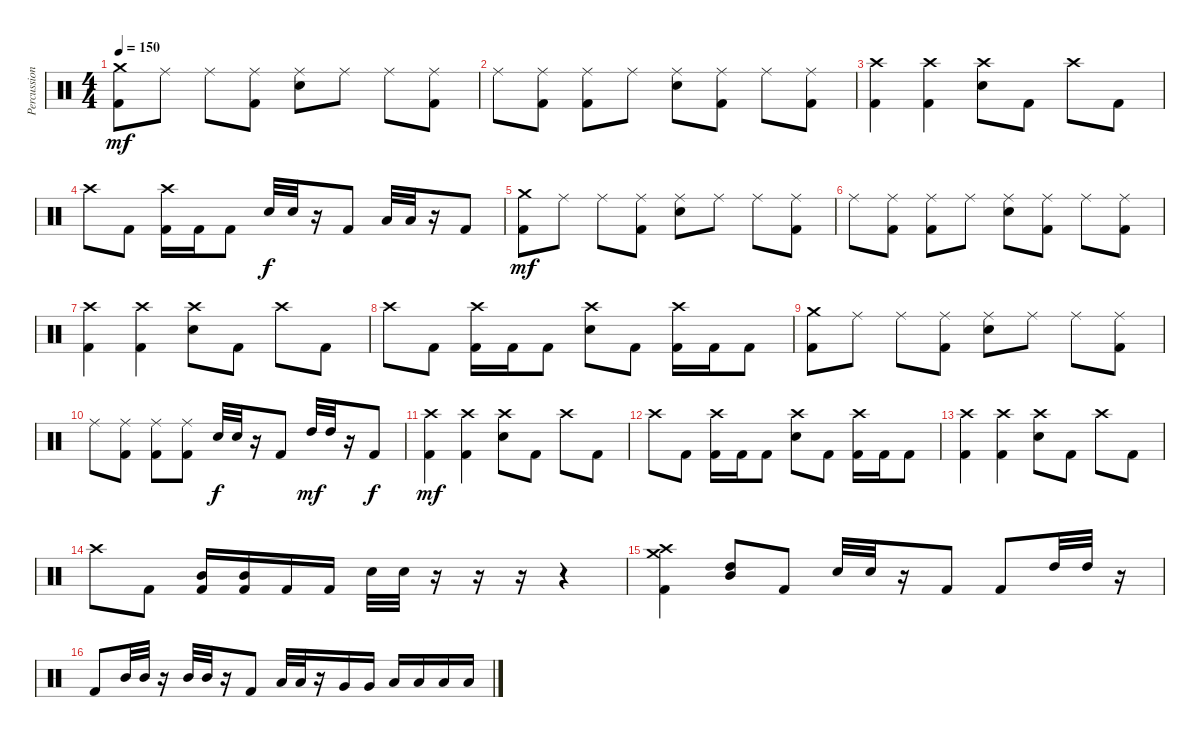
\track ("Percussion" "Percussion") {instrument percussion}
\staff {score}
\articulation defaults
\ts (4 4)
\tempo 150
\clef neutral
\ks c
("Crash medium (hit)" "Kick (hit) 2").8{dy mf} "Ride (middle)".8 "Ride (middle)".8 ("Ride (middle)" "Kick (hit) 2").8 ("Ride (middle)" "Snare (hit) 2").8 "Ride (middle)".8 "Ride (middle)".8 ("Ride (middle)" "Kick (hit) 2").8 |
"Ride (middle)".8 ("Ride (middle)" "Kick (hit) 2").8 ("Ride (middle)" "Kick (hit) 2").8 "Ride (middle)".8 ("Ride (middle)" "Snare (hit) 2").8 ("Ride (middle)" "Kick (hit) 2").8 "Ride (middle)".8 ("Kick (hit) 2" "Ride (middle)").8 |
("Crash high (hit)" "Kick (hit) 2").4 ("Kick (hit) 2" "Crash high (hit)").4 ("Snare (hit) 2" "Crash high (hit)").8 "Kick (hit) 2".8 "Crash high (hit)".8 "Kick (hit) 2".8 |
"Crash high (hit)".8 "Kick (hit) 2".8 ("Kick (hit) 2" "Crash high (hit)").16 "Kick (hit) 2".16 "Kick (hit) 2".8 "Snare (hit) 2".32{dy f} "Snare (hit) 2".32 r.16 "Kick (hit) 2".8 "Low Tom (hit)".32 "Low Tom (hit)".32 r.16 "Kick (hit) 2".8 |
("Crash medium (hit)" "Kick (hit) 2").8{dy mf} "Ride (middle)".8 "Ride (middle)".8 ("Ride (middle)" "Kick (hit) 2").8 ("Ride (middle)" "Snare (hit) 2").8 "Ride (middle)".8 "Ride (middle)".8 ("Ride (middle)" "Kick (hit) 2").8 |
"Ride (middle)".8 ("Ride (middle)" "Kick (hit) 2").8 ("Ride (middle)" "Kick (hit) 2").8 "Ride (middle)".8 ("Ride (middle)" "Snare (hit) 2").8 ("Ride (middle)" "Kick (hit) 2").8 "Ride (middle)".8 ("Kick (hit) 2" "Ride (middle)").8 |
("Crash high (hit)" "Kick (hit) 2").4 ("Kick (hit) 2" "Crash high (hit)").4 ("Snare (hit) 2" "Crash high (hit)").8 "Kick (hit) 2".8 "Crash high (hit)".8 "Kick (hit) 2".8 |
"Crash high (hit)".8 "Kick (hit) 2".8 ("Kick (hit) 2" "Crash high (hit)").16 "Kick (hit) 2".16 "Kick (hit) 2".8 ("Snare (hit) 2" "Crash high (hit)").8 "Kick (hit) 2".8 ("Kick (hit) 2" "Crash high (hit)").16 "Kick (hit) 2".16 "Kick (hit) 2".8 |
("Crash medium (hit)" "Kick (hit) 2").8 "Ride (middle)".8 "Ride (middle)".8 ("Ride (middle)" "Kick (hit) 2").8 ("Ride (middle)" "Snare (hit) 2").8 "Ride (middle)".8 "Ride (middle)".8 ("Ride (middle)" "Kick (hit) 2").8 |
"Ride (middle)".8 ("Ride (middle)" "Kick (hit) 2").8 ("Ride (middle)" "Kick (hit) 2").8 ("Ride (middle)" "Kick (hit) 2").8 "Snare (hit) 2".32{dy f} "Snare (hit) 2".32 r.16 "Kick (hit) 2".8 "High Tom (hit)".32{dy mf} "High Tom (hit)".32 r.16 "Kick (hit) 2".8{dy f} |
("Crash high (hit)" "Kick (hit) 2").4{dy mf} ("Kick (hit) 2" "Crash high (hit)").4 ("Snare (hit) 2" "Crash high (hit)").8 "Kick (hit) 2".8 "Crash high (hit)".8 "Kick (hit) 2".8 |
"Crash high (hit)".8 "Kick (hit) 2".8 ("Kick (hit) 2" "Crash high (hit)").16 "Kick (hit) 2".16 "Kick (hit) 2".8 ("Snare (hit) 2" "Crash high (hit)").8 "Kick (hit) 2".8 ("Kick (hit) 2" "Crash high (hit)").16 "Kick (hit) 2".16 "Kick (hit) 2".8 |
("Crash high (hit)" "Kick (hit) 2").4 ("Kick (hit) 2" "Crash high (hit)").4 ("Snare (hit) 2" "Crash high (hit)").8 "Kick (hit) 2".8 "Crash high (hit)".8 "Kick (hit) 2".8 |
"Crash high (hit)".8 "Kick (hit) 2".8 ("Kick (hit) 2" "Mid Tom (hit)").16 ("Kick (hit) 2" "Mid Tom (hit)").16 "Kick (hit) 2".16 "Kick (hit) 2".16 "Snare (hit) 2".32 "Snare (hit) 2".32 r.16 r.16 r.16 r.4 |
("Kick (hit) 2" "Crash high (hit)" "Crash medium (hit)").4 ("High Tom (hit)" "Mid Tom (hit)").8 "Kick (hit) 2".8 "Snare (hit) 2".32 "Snare (hit) 2".32 r.16 "Kick (hit) 2".8 "Kick (hit) 2".8 "High Tom (hit)".32 "High Tom (hit)".32 r.16 |
"Kick (hit) 2".8 "Mid Tom (hit)".32 "Mid Tom (hit)".32 r.16 "Mid Tom (hit)".32 "Mid Tom (hit)".32 r.16 "Kick (hit) 2".8 "Low Tom (hit)".32 "Low Tom (hit)".32 r.16 "Very Low Tom (hit)".16 "Very Low Tom (hit)".16 "Low Floor Tom (hit)".16 "Low Floor Tom (hit)".16 "Low Floor Tom (hit)".16 "Low Floor Tom (hit)".16
